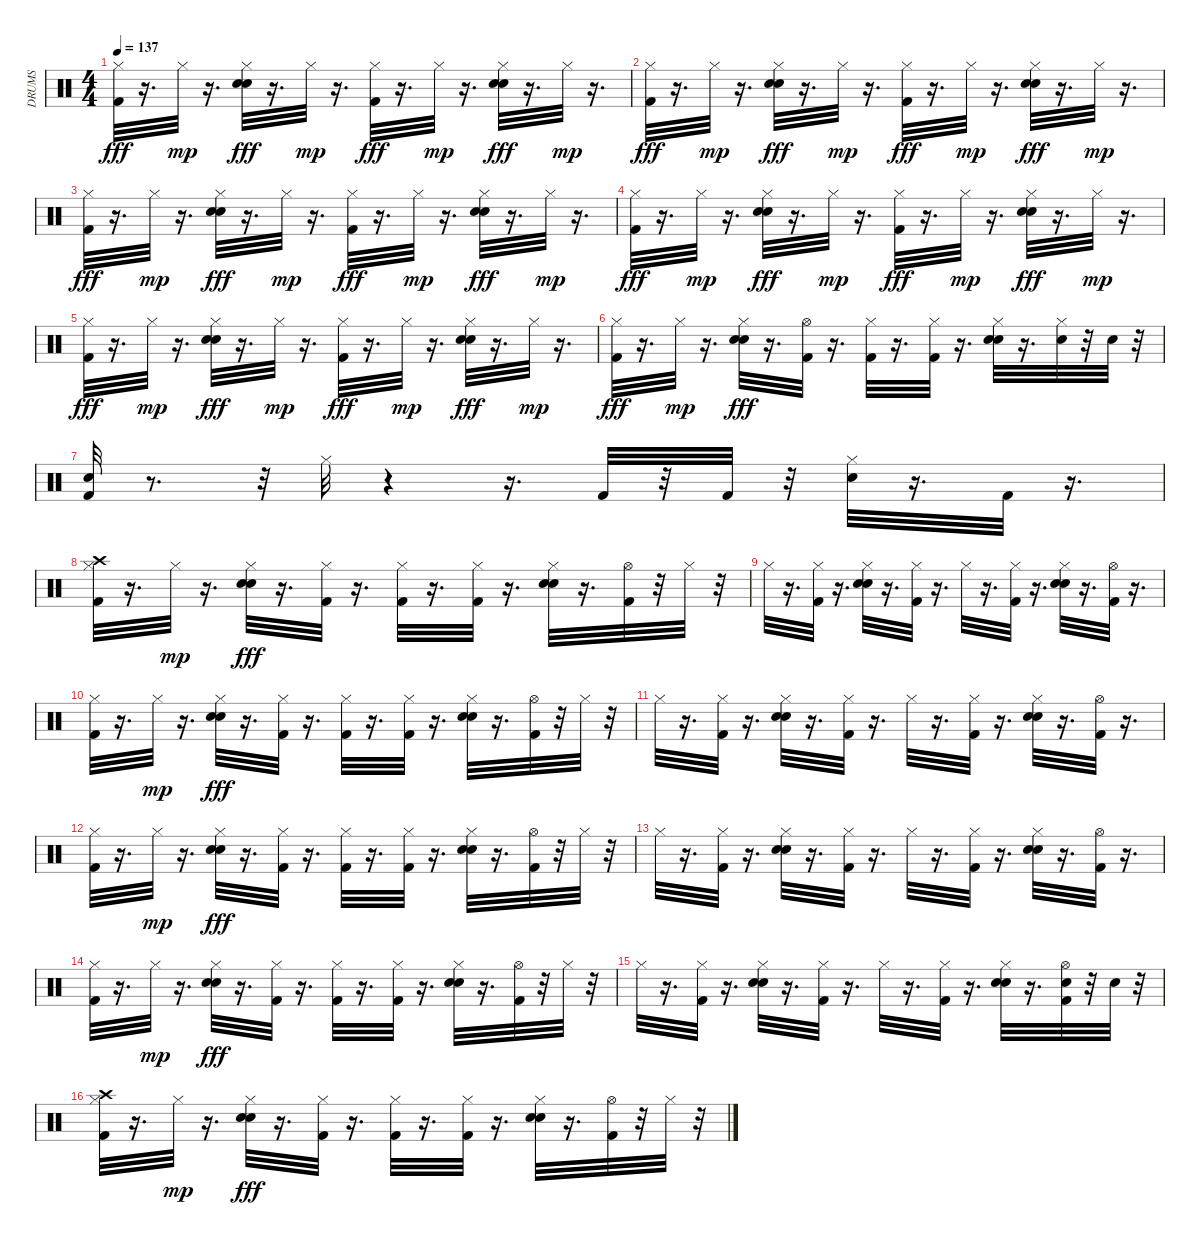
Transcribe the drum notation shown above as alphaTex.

\track ("DRUMS" "DRUMS") {instrument percussion}
\staff {score}
\articulation defaults
\ts (4 4)
\tempo 137
\clef neutral
\ks c
("Hi-Hat (closed)" "Kick (hit) 2").32{dy fff} r.16{d} "Hi-Hat (closed)".32{dy mp} r.16{d} ("Hand Clap (hit)" "Hi-Hat (closed)" "Snare (hit) 2").32{dy fff} r.16{d} "Hi-Hat (closed)".32{dy mp} r.16{d} ("Hi-Hat (closed)" "Kick (hit) 2").32{dy fff} r.16{d} "Hi-Hat (closed)".32{dy mp} r.16{d} ("Hand Clap (hit)" "Hi-Hat (closed)" "Snare (hit) 2").32{dy fff} r.16{d} "Hi-Hat (closed)".32{dy mp} r.16{d} |
("Hi-Hat (closed)" "Kick (hit) 2").32{dy fff} r.16{d} "Hi-Hat (closed)".32{dy mp} r.16{d} ("Hand Clap (hit)" "Hi-Hat (closed)" "Snare (hit) 2").32{dy fff} r.16{d} "Hi-Hat (closed)".32{dy mp} r.16{d} ("Hi-Hat (closed)" "Kick (hit) 2").32{dy fff} r.16{d} "Hi-Hat (closed)".32{dy mp} r.16{d} ("Hand Clap (hit)" "Hi-Hat (closed)" "Snare (hit) 2").32{dy fff} r.16{d} "Hi-Hat (closed)".32{dy mp} r.16{d} |
("Hi-Hat (closed)" "Kick (hit) 2").32{dy fff} r.16{d} "Hi-Hat (closed)".32{dy mp} r.16{d} ("Hand Clap (hit)" "Hi-Hat (closed)" "Snare (hit) 2").32{dy fff} r.16{d} "Hi-Hat (closed)".32{dy mp} r.16{d} ("Hi-Hat (closed)" "Kick (hit) 2").32{dy fff} r.16{d} "Hi-Hat (closed)".32{dy mp} r.16{d} ("Hand Clap (hit)" "Hi-Hat (closed)" "Snare (hit) 2").32{dy fff} r.16{d} "Hi-Hat (closed)".32{dy mp} r.16{d} |
("Hi-Hat (closed)" "Kick (hit) 2").32{dy fff} r.16{d} "Hi-Hat (closed)".32{dy mp} r.16{d} ("Hand Clap (hit)" "Hi-Hat (closed)" "Snare (hit) 2").32{dy fff} r.16{d} "Hi-Hat (closed)".32{dy mp} r.16{d} ("Hi-Hat (closed)" "Kick (hit) 2").32{dy fff} r.16{d} "Hi-Hat (closed)".32{dy mp} r.16{d} ("Hand Clap (hit)" "Hi-Hat (closed)" "Snare (hit) 2").32{dy fff} r.16{d} "Hi-Hat (closed)".32{dy mp} r.16{d} |
("Hi-Hat (closed)" "Kick (hit) 2").32{dy fff} r.16{d} "Hi-Hat (closed)".32{dy mp} r.16{d} ("Hand Clap (hit)" "Hi-Hat (closed)" "Snare (hit) 2").32{dy fff} r.16{d} "Hi-Hat (closed)".32{dy mp} r.16{d} ("Hi-Hat (closed)" "Kick (hit) 2").32{dy fff} r.16{d} "Hi-Hat (closed)".32{dy mp} r.16{d} ("Hand Clap (hit)" "Hi-Hat (closed)" "Snare (hit) 2").32{dy fff} r.16{d} "Hi-Hat (closed)".32{dy mp} r.16{d} |
("Hi-Hat (closed)" "Kick (hit) 2").32{dy fff} r.16{d} "Hi-Hat (closed)".32{dy mp} r.16{d} ("Hand Clap (hit)" "Hi-Hat (closed)" "Snare (hit) 2").32{dy fff} r.16{d} ("Hi-Hat (open)" "Kick (hit) 2").32 r.16{d} ("Hi-Hat (closed)" "Kick (hit) 2").32 r.16{d} ("Hi-Hat (closed)" "Kick (hit) 2").32 r.16{d} ("Hand Clap (hit)" "Hi-Hat (closed)" "Snare (hit) 2").32 r.16{d} ("Hi-Hat (closed)" "Snare (hit) 2").32 r.32 "Snare (hit) 2".32 r.32 |
("Snare (hit) 2" "Kick (hit) 2").32 r.8{d} r.32 "Hi-Hat (closed)".32 r.4 r.16{d} "Kick (hit) 2".32 r.32 "Kick (hit) 2".32 r.32 ("Hi-Hat (closed)" "Snare (hit) 2").32 r.16{d} "Kick (hit) 2".32 r.16{d} |
("Crash high (hit)" "Hi-Hat (closed)" "Kick (hit) 2").32 r.16{d} "Hi-Hat (closed)".32{dy mp} r.16{d} ("Hand Clap (hit)" "Hi-Hat (closed)" "Snare (hit) 2").32{dy fff} r.16{d} ("Hi-Hat (closed)" "Kick (hit) 2").32 r.16{d} ("Hi-Hat (closed)" "Kick (hit) 2").32 r.16{d} ("Hi-Hat (closed)" "Kick (hit) 2").32 r.16{d} ("Hand Clap (hit)" "Hi-Hat (closed)" "Snare (hit) 2").32 r.16{d} ("Hi-Hat (open)" "Kick (hit) 2").32 r.32 "Hi-Hat (closed)".32 r.32 |
"Hi-Hat (closed)".32 r.16{d} ("Hi-Hat (closed)" "Kick (hit) 2").32 r.16{d} ("Hand Clap (hit)" "Hi-Hat (closed)" "Snare (hit) 2").32 r.16{d} ("Hi-Hat (closed)" "Kick (hit) 2").32 r.16{d} "Hi-Hat (closed)".32 r.16{d} ("Hi-Hat (closed)" "Kick (hit) 2").32 r.16{d} ("Hand Clap (hit)" "Hi-Hat (closed)" "Snare (hit) 2").32 r.16{d} ("Hi-Hat (open)" "Kick (hit) 2").32 r.16{d} |
("Hi-Hat (closed)" "Kick (hit) 2").32 r.16{d} "Hi-Hat (closed)".32{dy mp} r.16{d} ("Hand Clap (hit)" "Hi-Hat (closed)" "Snare (hit) 2").32{dy fff} r.16{d} ("Hi-Hat (closed)" "Kick (hit) 2").32 r.16{d} ("Hi-Hat (closed)" "Kick (hit) 2").32 r.16{d} ("Hi-Hat (closed)" "Kick (hit) 2").32 r.16{d} ("Snare (hit) 2" "Hand Clap (hit)" "Hi-Hat (closed)").32 r.16{d} ("Hi-Hat (open)" "Kick (hit) 2").32 r.32 "Hi-Hat (closed)".32 r.32 |
"Hi-Hat (closed)".32 r.16{d} ("Hi-Hat (closed)" "Kick (hit) 2").32 r.16{d} ("Hand Clap (hit)" "Hi-Hat (closed)" "Snare (hit) 2").32 r.16{d} ("Hi-Hat (closed)" "Kick (hit) 2").32 r.16{d} "Hi-Hat (closed)".32 r.16{d} ("Hi-Hat (closed)" "Kick (hit) 2").32 r.16{d} ("Hand Clap (hit)" "Hi-Hat (closed)" "Snare (hit) 2").32 r.16{d} ("Hi-Hat (open)" "Kick (hit) 2").32 r.16{d} |
("Hi-Hat (closed)" "Kick (hit) 2").32 r.16{d} "Hi-Hat (closed)".32{dy mp} r.16{d} ("Hand Clap (hit)" "Hi-Hat (closed)" "Snare (hit) 2").32{dy fff} r.16{d} ("Hi-Hat (closed)" "Kick (hit) 2").32 r.16{d} ("Hi-Hat (closed)" "Kick (hit) 2").32 r.16{d} ("Hi-Hat (closed)" "Kick (hit) 2").32 r.16{d} ("Hand Clap (hit)" "Hi-Hat (closed)" "Snare (hit) 2").32 r.16{d} ("Hi-Hat (open)" "Kick (hit) 2").32 r.32 "Hi-Hat (closed)".32 r.32 |
"Hi-Hat (closed)".32 r.16{d} ("Hi-Hat (closed)" "Kick (hit) 2").32 r.16{d} ("Hand Clap (hit)" "Hi-Hat (closed)" "Snare (hit) 2").32 r.16{d} ("Hi-Hat (closed)" "Kick (hit) 2").32 r.16{d} "Hi-Hat (closed)".32 r.16{d} ("Hi-Hat (closed)" "Kick (hit) 2").32 r.16{d} ("Hand Clap (hit)" "Hi-Hat (closed)" "Snare (hit) 2").32 r.16{d} ("Hi-Hat (open)" "Kick (hit) 2").32 r.16{d} |
("Hi-Hat (closed)" "Kick (hit) 2").32 r.16{d} "Hi-Hat (closed)".32{dy mp} r.16{d} ("Hand Clap (hit)" "Hi-Hat (closed)" "Snare (hit) 2").32{dy fff} r.16{d} ("Hi-Hat (closed)" "Kick (hit) 2").32 r.16{d} ("Hi-Hat (closed)" "Kick (hit) 2").32 r.16{d} ("Hi-Hat (closed)" "Kick (hit) 2").32 r.16{d} ("Hand Clap (hit)" "Hi-Hat (closed)" "Snare (hit) 2").32 r.16{d} ("Hi-Hat (open)" "Kick (hit) 2").32 r.32 "Hi-Hat (closed)".32 r.32 |
"Hi-Hat (closed)".32 r.16{d} ("Hi-Hat (closed)" "Kick (hit) 2").32 r.16{d} ("Hand Clap (hit)" "Hi-Hat (closed)" "Snare (hit) 2").32 r.16{d} ("Hi-Hat (closed)" "Kick (hit) 2").32 r.16{d} "Hi-Hat (closed)".32 r.16{d} ("Hi-Hat (closed)" "Kick (hit) 2").32 r.16{d} ("Hand Clap (hit)" "Hi-Hat (closed)" "Snare (hit) 2").32 r.16{d} ("Hi-Hat (open)" "Snare (hit) 2" "Kick (hit) 2").32 r.32 "Snare (hit) 2".32 r.32 |
("Crash high (hit)" "Hi-Hat (closed)" "Kick (hit) 2").32 r.16{d} "Hi-Hat (closed)".32{dy mp} r.16{d} ("Hand Clap (hit)" "Hi-Hat (closed)" "Snare (hit) 2").32{dy fff} r.16{d} ("Hi-Hat (closed)" "Kick (hit) 2").32 r.16{d} ("Hi-Hat (closed)" "Kick (hit) 2").32 r.16{d} ("Hi-Hat (closed)" "Kick (hit) 2").32 r.16{d} ("Hi-Hat (closed)" "Snare (hit) 2" "Hand Clap (hit)").32 r.16{d} ("Hi-Hat (open)" "Kick (hit) 2").32 r.32 "Hi-Hat (closed)".32 r.32
